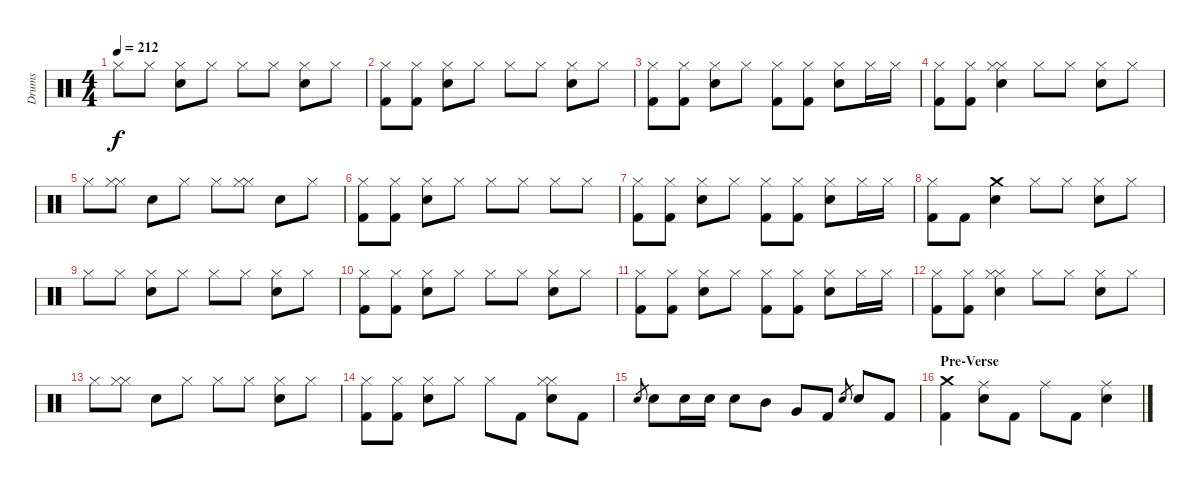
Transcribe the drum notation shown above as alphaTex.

\track ("Drums" "Drums") {instrument percussion}
\staff {score}
\articulation defaults
\ts (4 4)
\tempo 212
\clef neutral
\ks c "Hi-Hat (closed)".8{dy f} "Hi-Hat (closed)".8
("Hi-Hat (closed)" "Electric Snare (hit)").8 "Hi-Hat (closed)".8 "Hi-Hat (closed)".8 "Hi-Hat (closed)".8 ("Hi-Hat (closed)" "Electric Snare (hit)").8 "Hi-Hat (closed)".8 |
("Hi-Hat (closed)" "Kick (hit) 2").8 ("Hi-Hat (closed)" "Kick (hit) 2").8 ("Hi-Hat (closed)" "Electric Snare (hit)").8 "Hi-Hat (closed)".8 "Hi-Hat (closed)".8 "Hi-Hat (closed)".8 ("Hi-Hat (closed)" "Electric Snare (hit)").8 "Hi-Hat (closed)".8 |
("Hi-Hat (closed)" "Kick (hit) 2").8 ("Hi-Hat (closed)" "Kick (hit) 2").8 ("Hi-Hat (closed)" "Electric Snare (hit)").8 "Hi-Hat (closed)".8 ("Hi-Hat (closed)" "Kick (hit) 2").8 ("Hi-Hat (closed)" "Kick (hit) 2").8 ("Hi-Hat (closed)" "Electric Snare (hit)").8 "Hi-Hat (closed)".16 "Hi-Hat (closed)".16 |
("Hi-Hat (closed)" "Kick (hit) 2").8 ("Hi-Hat (closed)" "Kick (hit) 2").8 ("Hi-Hat (closed)" "Hi-Hat (closed)" "Electric Snare (hit)").4 "Hi-Hat (closed)".8 "Hi-Hat (closed)".8 ("Hi-Hat (closed)" "Electric Snare (hit)").8 "Hi-Hat (closed)".8 |
"Hi-Hat (closed)".8 ("Hi-Hat (closed)" "Hi-Hat (closed)").8 "Electric Snare (hit)".8 "Hi-Hat (closed)".8 "Hi-Hat (closed)".8 ("Hi-Hat (closed)" "Hi-Hat (closed)").8 "Electric Snare (hit)".8 "Hi-Hat (closed)".8 |
("Hi-Hat (closed)" "Kick (hit) 2").8 ("Hi-Hat (closed)" "Kick (hit) 2").8 ("Hi-Hat (closed)" "Electric Snare (hit)").8 "Hi-Hat (closed)".8 "Hi-Hat (closed)".8 "Hi-Hat (closed)".8 "Hi-Hat (closed)".8 "Hi-Hat (closed)".8 |
("Hi-Hat (closed)" "Kick (hit) 2").8 ("Hi-Hat (closed)" "Kick (hit) 2").8 ("Hi-Hat (closed)" "Electric Snare (hit)").8 "Hi-Hat (closed)".8 ("Hi-Hat (closed)" "Kick (hit) 2").8 ("Hi-Hat (closed)" "Kick (hit) 2").8 ("Hi-Hat (closed)" "Electric Snare (hit)").8 "Hi-Hat (closed)".16 "Hi-Hat (closed)".16 |
("Hi-Hat (closed)" "Kick (hit) 2").8 "Kick (hit) 2".8 ("Crash medium (hit)" "Electric Snare (hit)").4 "Hi-Hat (closed)".8 "Hi-Hat (closed)".8 ("Hi-Hat (closed)" "Electric Snare (hit)").8 "Hi-Hat (closed)".8 |
"Hi-Hat (closed)".8 "Hi-Hat (closed)".8 ("Hi-Hat (closed)" "Electric Snare (hit)").8 "Hi-Hat (closed)".8 "Hi-Hat (closed)".8 "Hi-Hat (closed)".8 ("Hi-Hat (closed)" "Electric Snare (hit)").8 "Hi-Hat (closed)".8 |
("Hi-Hat (closed)" "Kick (hit) 2").8 ("Hi-Hat (closed)" "Kick (hit) 2").8 ("Hi-Hat (closed)" "Electric Snare (hit)").8 "Hi-Hat (closed)".8 "Hi-Hat (closed)".8 "Hi-Hat (closed)".8 ("Hi-Hat (closed)" "Electric Snare (hit)").8 "Hi-Hat (closed)".8 |
("Hi-Hat (closed)" "Kick (hit) 2").8 ("Hi-Hat (closed)" "Kick (hit) 2").8 ("Hi-Hat (closed)" "Electric Snare (hit)").8 "Hi-Hat (closed)".8 ("Hi-Hat (closed)" "Kick (hit) 2").8 ("Hi-Hat (closed)" "Kick (hit) 2").8 ("Hi-Hat (closed)" "Electric Snare (hit)").8 "Hi-Hat (closed)".16 "Hi-Hat (closed)".16 |
("Hi-Hat (closed)" "Kick (hit) 2").8 ("Hi-Hat (closed)" "Kick (hit) 2").8 ("Hi-Hat (closed)" "Hi-Hat (closed)" "Electric Snare (hit)").4 "Hi-Hat (closed)".8 "Hi-Hat (closed)".8 ("Hi-Hat (closed)" "Electric Snare (hit)").8 "Hi-Hat (closed)".8 |
"Hi-Hat (closed)".8 ("Hi-Hat (closed)" "Hi-Hat (closed)").8 "Electric Snare (hit)".8 "Hi-Hat (closed)".8 "Hi-Hat (closed)".8 "Hi-Hat (closed)".8 ("Hi-Hat (closed)" "Electric Snare (hit)").8 "Hi-Hat (closed)".8 |
("Hi-Hat (closed)" "Kick (hit) 2").8 ("Hi-Hat (closed)" "Kick (hit) 2").8 ("Hi-Hat (closed)" "Electric Snare (hit)").8 "Hi-Hat (closed)".8 "Hi-Hat (closed)".8 "Kick (hit) 2".8 ("Hi-Hat (closed)" "Hi-Hat (closed)" "Electric Snare (hit)").8 "Kick (hit) 2".8 |
"Electric Snare (hit)".8{gr} "Electric Snare (hit)".8 "Electric Snare (hit)".16 "Electric Snare (hit)".16 "Electric Snare (hit)".8 "Mid Tom (hit)".8 "Very Low Tom (hit)".8 "Kick (hit) 2".8 "Electric Snare (hit)".8{gr} "Electric Snare (hit)".8 "Kick (hit) 2".8 |
\section ("" "Pre-Verse")
("Crash medium (hit)" "Kick (hit) 2").4 ("Ride (middle)" "Electric Snare (hit)").8 "Kick (hit) 2".8 "Ride (middle)".8 "Kick (hit) 2".8 ("Ride (middle)" "Electric Snare (hit)").4
